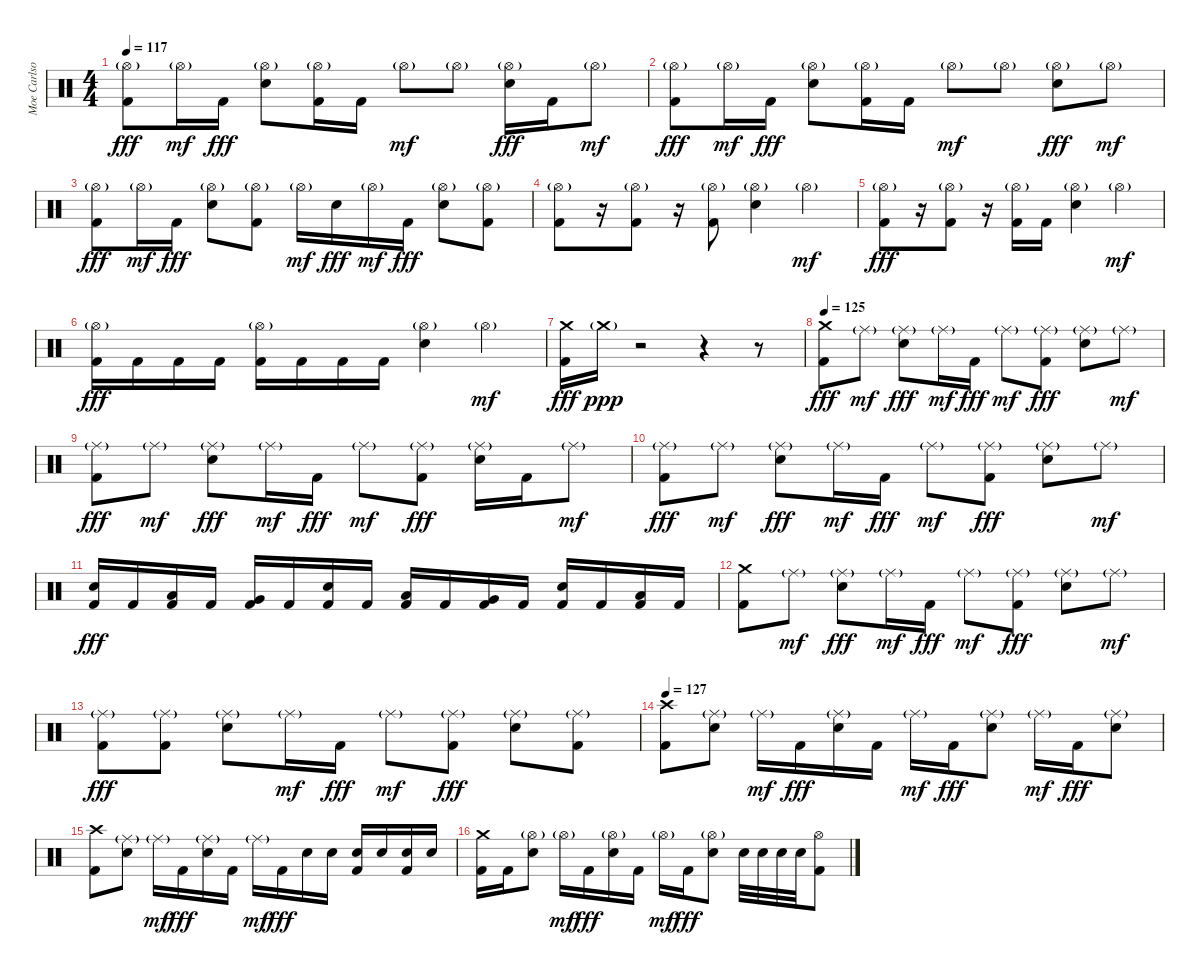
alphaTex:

\track ("Moe Carlson" "Moe Carlso") {instrument percussion}
\staff {score}
\articulation defaults
\ts (4 4)
\tempo 117
\clef neutral
\ks c
("Hi-Hat (open)"{g} "Kick (hit) 2").8{dy fff} "Hi-Hat (open)"{g}.16{dy mf} "Kick (hit) 2".16{dy fff} ("Hi-Hat (open)"{g} "Electric Snare (hit)").8 ("Hi-Hat (open)"{g} "Kick (hit) 2").16 "Kick (hit) 2".16 "Hi-Hat (open)"{g}.8{dy mf} "Hi-Hat (open)"{g}.8 ("Hi-Hat (open)"{g} "Electric Snare (hit)").16{dy fff} "Kick (hit) 2".16 "Hi-Hat (open)"{g}.8{dy mf} |
("Hi-Hat (open)"{g} "Kick (hit) 2").8{dy fff} "Hi-Hat (open)"{g}.16{dy mf} "Kick (hit) 2".16{dy fff} ("Hi-Hat (open)"{g} "Electric Snare (hit)").8 ("Hi-Hat (open)"{g} "Kick (hit) 2").16 "Kick (hit) 2".16 "Hi-Hat (open)"{g}.8{dy mf} "Hi-Hat (open)"{g}.8 ("Hi-Hat (open)"{g} "Electric Snare (hit)").8{dy fff} "Hi-Hat (open)"{g}.8{dy mf} |
("Hi-Hat (open)"{g} "Kick (hit) 2").8{dy fff} "Hi-Hat (open)"{g}.16{dy mf} "Kick (hit) 2".16{dy fff} ("Hi-Hat (open)"{g} "Electric Snare (hit)").8 ("Hi-Hat (open)"{g} "Kick (hit) 2").8 "Hi-Hat (open)"{g}.16{dy mf} "Electric Snare (hit)".16{dy fff} "Hi-Hat (open)"{g}.16{dy mf} "Kick (hit) 2".16{dy fff} ("Hi-Hat (open)"{g} "Electric Snare (hit)").8 ("Hi-Hat (open)"{g} "Kick (hit) 2").8 |
("Hi-Hat (open)"{g} "Kick (hit) 2").8 r.16 ("Hi-Hat (open)"{g} "Kick (hit) 2").8 r.16 ("Hi-Hat (open)"{g} "Kick (hit) 2").8 ("Hi-Hat (open)"{g} "Electric Snare (hit)").4 "Hi-Hat (open)"{g}.4{dy mf} |
("Hi-Hat (open)"{g} "Kick (hit) 2").8{dy fff} r.16 ("Hi-Hat (open)"{g} "Kick (hit) 2").8 r.16 ("Hi-Hat (open)"{g} "Kick (hit) 2").16 "Kick (hit) 2".16 ("Hi-Hat (open)"{g} "Electric Snare (hit)").4 "Hi-Hat (open)"{g}.4{dy mf} |
("Hi-Hat (open)"{g} "Kick (hit) 2").16{dy fff} "Kick (hit) 2".16 "Kick (hit) 2".16 "Kick (hit) 2".16 ("Hi-Hat (open)"{g} "Kick (hit) 2").16 "Kick (hit) 2".16 "Kick (hit) 2".16 "Kick (hit) 2".16 ("Hi-Hat (open)"{g} "Electric Snare (hit)").4 "Hi-Hat (open)"{g}.4{dy mf} |
("Crash medium (hit)" "Kick (hit) 2").16{dy fff} "Crash medium (hit)"{g}.16{dy ppp} r.2 r.4 r.8 |
\tempo 125
("Crash medium (hit)" "Kick (hit) 2").8{dy fff} "Ride (middle)"{g}.8{dy mf} ("Ride (middle)"{g} "Electric Snare (hit)").8{dy fff} "Ride (middle)"{g}.16{dy mf} "Kick (hit) 2".16{dy fff} "Ride (middle)"{g}.8{dy mf} ("Ride (middle)"{g} "Kick (hit) 2").8{dy fff} ("Ride (middle)"{g} "Electric Snare (hit)").8 "Ride (middle)"{g}.8{dy mf} |
("Ride (middle)"{g} "Kick (hit) 2").8{dy fff} "Ride (middle)"{g}.8{dy mf} ("Ride (middle)"{g} "Electric Snare (hit)").8{dy fff} "Ride (middle)"{g}.16{dy mf} "Kick (hit) 2".16{dy fff} "Ride (middle)"{g}.8{dy mf} ("Ride (middle)"{g} "Kick (hit) 2").8{dy fff} ("Ride (middle)"{g} "Electric Snare (hit)").16 "Kick (hit) 2".16 "Ride (middle)"{g}.8{dy mf} |
("Ride (middle)"{g} "Kick (hit) 2").8{dy fff} "Ride (middle)"{g}.8{dy mf} ("Ride (middle)"{g} "Electric Snare (hit)").8{dy fff} "Ride (middle)"{g}.16{dy mf} "Kick (hit) 2".16{dy fff} "Ride (middle)"{g}.8{dy mf} ("Ride (middle)"{g} "Kick (hit) 2").8{dy fff} ("Ride (middle)"{g} "Electric Snare (hit)").8 "Ride (middle)"{g}.8{dy mf} |
("Electric Snare (hit)" "Kick (hit) 2").16{dy fff} "Kick (hit) 2".16 ("Low Tom (hit)" "Kick (hit) 2").16 "Kick (hit) 2".16 ("Very Low Tom (hit)" "Kick (hit) 2").16 "Kick (hit) 2".16 ("Electric Snare (hit)" "Kick (hit) 2").16 "Kick (hit) 2".16 ("Low Tom (hit)" "Kick (hit) 2").16 "Kick (hit) 2".16 ("Very Low Tom (hit)" "Kick (hit) 2").16 "Kick (hit) 2".16 ("Electric Snare (hit)" "Kick (hit) 2").16 "Kick (hit) 2".16 ("Low Tom (hit)" "Kick (hit) 2").16 "Kick (hit) 2".16 |
("Crash medium (hit)" "Kick (hit) 2").8 "Ride (middle)"{g}.8{dy mf} ("Ride (middle)"{g} "Electric Snare (hit)").8{dy fff} "Ride (middle)"{g}.16{dy mf} "Kick (hit) 2".16{dy fff} "Ride (middle)"{g}.8{dy mf} ("Ride (middle)"{g} "Kick (hit) 2").8{dy fff} ("Ride (middle)"{g} "Electric Snare (hit)").8 "Ride (middle)"{g}.8{dy mf} |
("Ride (middle)"{g} "Kick (hit) 2").8{dy fff} ("Ride (middle)"{g} "Kick (hit) 2").8 ("Ride (middle)"{g} "Electric Snare (hit)").8 "Ride (middle)"{g}.16{dy mf} "Kick (hit) 2".16{dy fff} "Ride (middle)"{g}.8{dy mf} ("Ride (middle)"{g} "Kick (hit) 2").8{dy fff} ("Ride (middle)"{g} "Electric Snare (hit)").8 ("Ride (middle)"{g} "Kick (hit) 2").8 |
\tempo 127
("Crash high (hit)" "Kick (hit) 2").8 ("Ride (middle)"{g} "Electric Snare (hit)").8 "Ride (middle)"{g}.16{dy mf} "Kick (hit) 2".16{dy fff} ("Ride (middle)"{g} "Electric Snare (hit)").16 "Kick (hit) 2".16 "Ride (middle)"{g}.16{dy mf} "Kick (hit) 2".16{dy fff} ("Ride (middle)"{g} "Electric Snare (hit)").8 "Ride (middle)"{g}.16{dy mf} "Kick (hit) 2".16{dy fff} ("Ride (middle)"{g} "Electric Snare (hit)").8 |
("Crash high (hit)" "Kick (hit) 2").8 ("Ride (middle)"{g} "Electric Snare (hit)").8 "Ride (middle)"{g}.16{dy mf} "Kick (hit) 2".16{dy fff} ("Ride (middle)"{g} "Electric Snare (hit)").16 "Kick (hit) 2".16 "Ride (middle)"{g}.16{dy mf} "Kick (hit) 2".16{dy fff} "Electric Snare (hit)".16 "Electric Snare (hit)".16 ("Electric Snare (hit)" "Kick (hit) 2").16 "Electric Snare (hit)".16 ("Electric Snare (hit)" "Kick (hit) 2").16 "Electric Snare (hit)".16 |
("Crash medium (hit)" "Kick (hit) 2").16 "Kick (hit) 2".16 ("Hi-Hat (open)"{g} "Electric Snare (hit)").8 "Hi-Hat (open)"{g}.16{dy mf} "Kick (hit) 2".16{dy fff} ("Hi-Hat (open)"{g} "Electric Snare (hit)").16 "Kick (hit) 2".16 "Hi-Hat (open)"{g}.16{dy mf} "Kick (hit) 2".16{dy fff} ("Hi-Hat (open)"{g} "Electric Snare (hit)").8 "Electric Snare (hit)".32 "Electric Snare (hit)".32 "Electric Snare (hit)".32 "Electric Snare (hit)".32 ("Hi-Hat (open)" "Kick (hit) 2").8
